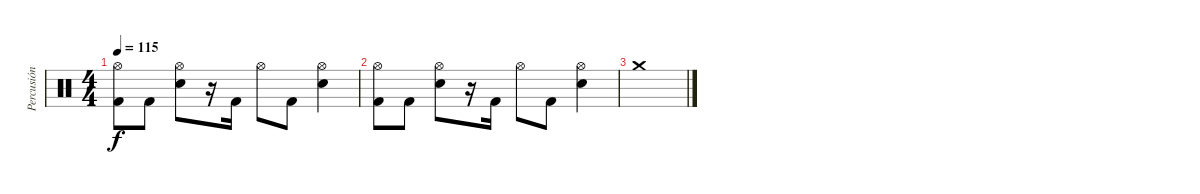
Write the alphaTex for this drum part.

\track ("Percusión" "Percusión") {instrument percussion}
\staff {score}
\articulation defaults
\ts (4 4)
\tempo 115
\clef neutral
\ks c
("Kick (hit) 2" "Hi-Hat (open)").8{dy f} "Kick (hit) 2".8 ("Electric Snare (hit)" "Hi-Hat (open)").8 r.16 "Kick (hit) 2".16 "Hi-Hat (open)".8 "Kick (hit) 2".8 ("Electric Snare (hit)" "Hi-Hat (open)").4 |
("Kick (hit) 2" "Hi-Hat (open)").8 "Kick (hit) 2".8 ("Electric Snare (hit)" "Hi-Hat (open)").8 r.16 "Kick (hit) 2".16 "Hi-Hat (open)".8 "Kick (hit) 2".8 ("Electric Snare (hit)" "Hi-Hat (open)").4 |
"Crash medium (hit)".1
